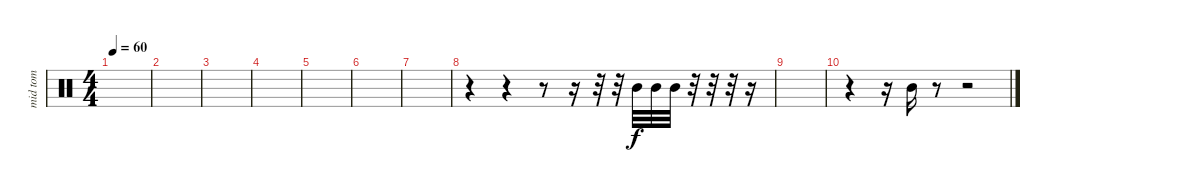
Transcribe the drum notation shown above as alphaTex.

\track ("mid tom" "mid tom") {instrument percussion}
\staff {score}
\articulation defaults
\ts (4 4)
\tempo 60
\clef neutral
\ks c
|
|
|
|
|
|
|
r.4 r.4 r.8 r.16 r.32 r.32 "Mid Tom (hit)".32 "Mid Tom (hit)".32 "Mid Tom (hit)".32 r.32 r.32 r.32 r.16 |
|
r.4 r.16 "Mid Tom (hit)".16 r.8 r.2
